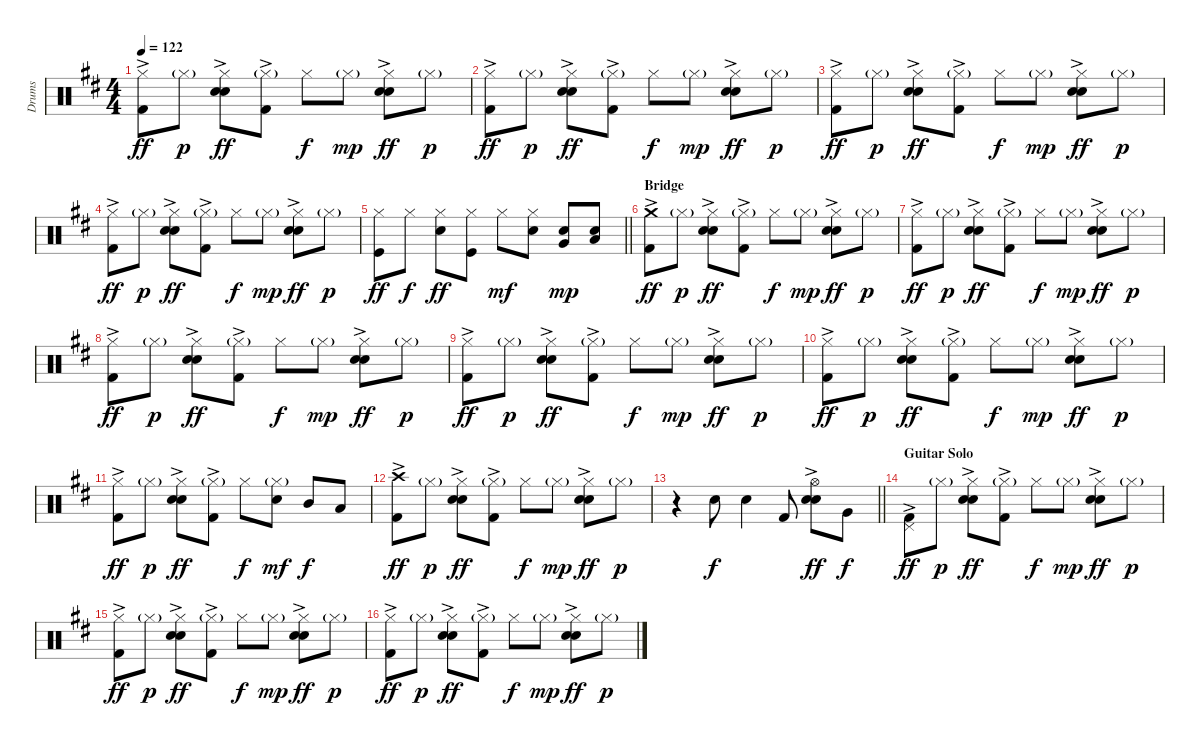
\track ("Drums" "Drums") {instrument percussion}
\staff {score}
\articulation defaults
\ts (4 4)
\tempo 122
\clef neutral
\ks d
("Hi-Hat (closed)" "Kick (hit) 2"{ac}).8{dy ff} "Hi-Hat (closed)"{g}.8{dy p} ("Hi-Hat (closed)" "Electric Snare (hit)"{ac} "Snare (hit) 2").8{dy ff} ("Hi-Hat (closed)"{g} "Kick (hit) 2"{ac}).8 "Hi-Hat (closed)".8{dy f} "Hi-Hat (closed)"{g}.8{dy mp} ("Hi-Hat (closed)" "Electric Snare (hit)"{ac} "Snare (hit) 2").8{dy ff} "Hi-Hat (closed)"{g}.8{dy p} |
("Hi-Hat (closed)" "Kick (hit) 2"{ac}).8{dy ff} "Hi-Hat (closed)"{g}.8{dy p} ("Hi-Hat (closed)" "Electric Snare (hit)"{ac} "Snare (hit) 2").8{dy ff} ("Hi-Hat (closed)"{g} "Kick (hit) 2"{ac}).8 "Hi-Hat (closed)".8{dy f} "Hi-Hat (closed)"{g}.8{dy mp} ("Hi-Hat (closed)" "Electric Snare (hit)"{ac} "Snare (hit) 2").8{dy ff} "Hi-Hat (closed)"{g}.8{dy p} |
("Hi-Hat (closed)" "Kick (hit) 2"{ac}).8{dy ff} "Hi-Hat (closed)"{g}.8{dy p} ("Hi-Hat (closed)" "Electric Snare (hit)"{ac} "Snare (hit) 2").8{dy ff} ("Hi-Hat (closed)"{g} "Kick (hit) 2"{ac}).8 "Hi-Hat (closed)".8{dy f} "Hi-Hat (closed)"{g}.8{dy mp} ("Hi-Hat (closed)" "Electric Snare (hit)"{ac} "Snare (hit) 2").8{dy ff} "Hi-Hat (closed)"{g}.8{dy p} |
("Hi-Hat (closed)" "Kick (hit) 2"{ac}).8{dy ff} "Hi-Hat (closed)"{g}.8{dy p} ("Hi-Hat (closed)" "Electric Snare (hit)"{ac} "Snare (hit) 2").8{dy ff} ("Hi-Hat (closed)"{g} "Kick (hit) 2"{ac}).8 "Hi-Hat (closed)".8{dy f} "Hi-Hat (closed)"{g}.8{dy mp} ("Hi-Hat (closed)" "Electric Snare (hit)"{ac} "Snare (hit) 2").8{dy ff} "Hi-Hat (closed)"{g}.8{dy p} |
\barLineRight lightlight
("Kick (hit)" "Hi-Hat (closed)").8{dy ff} "Hi-Hat (closed)".8{dy f} ("Electric Snare (hit)" "Hi-Hat (closed)").8{dy ff} ("Kick (hit)" "Hi-Hat (closed)").8 "Hi-Hat (closed)".8{dy mf} ("Electric Snare (hit)" "Hi-Hat (closed)").8 ("Electric Snare (hit)" "Very Low Tom (hit)").8{dy mp} ("Electric Snare (hit)" "Low Tom (hit)").8 |
\section ("" "Bridge")
("Crash medium (hit)" "Kick (hit) 2"{ac}).8{dy ff} "Hi-Hat (closed)"{g}.8{dy p} ("Hi-Hat (closed)" "Electric Snare (hit)"{ac} "Snare (hit) 2").8{dy ff} ("Hi-Hat (closed)"{g} "Kick (hit) 2"{ac}).8 "Hi-Hat (closed)".8{dy f} "Hi-Hat (closed)"{g}.8{dy mp} ("Hi-Hat (closed)" "Electric Snare (hit)"{ac} "Snare (hit) 2").8{dy ff} "Hi-Hat (closed)"{g}.8{dy p} |
("Hi-Hat (closed)" "Kick (hit) 2"{ac}).8{dy ff} "Hi-Hat (closed)"{g}.8{dy p} ("Hi-Hat (closed)" "Electric Snare (hit)"{ac} "Snare (hit) 2").8{dy ff} ("Hi-Hat (closed)"{g} "Kick (hit) 2"{ac}).8 "Hi-Hat (closed)".8{dy f} "Hi-Hat (closed)"{g}.8{dy mp} ("Hi-Hat (closed)" "Electric Snare (hit)"{ac} "Snare (hit) 2").8{dy ff} "Hi-Hat (closed)"{g}.8{dy p} |
("Hi-Hat (closed)" "Kick (hit) 2"{ac}).8{dy ff} "Hi-Hat (closed)"{g}.8{dy p} ("Hi-Hat (closed)" "Electric Snare (hit)"{ac} "Snare (hit) 2").8{dy ff} ("Hi-Hat (closed)"{g} "Kick (hit) 2"{ac}).8 "Hi-Hat (closed)".8{dy f} "Hi-Hat (closed)"{g}.8{dy mp} ("Hi-Hat (closed)" "Electric Snare (hit)"{ac} "Snare (hit) 2").8{dy ff} "Hi-Hat (closed)"{g}.8{dy p} |
("Hi-Hat (closed)" "Kick (hit) 2"{ac}).8{dy ff} "Hi-Hat (closed)"{g}.8{dy p} ("Hi-Hat (closed)" "Electric Snare (hit)"{ac} "Snare (hit) 2").8{dy ff} ("Hi-Hat (closed)"{g} "Kick (hit) 2"{ac}).8 "Hi-Hat (closed)".8{dy f} "Hi-Hat (closed)"{g}.8{dy mp} ("Hi-Hat (closed)" "Electric Snare (hit)"{ac} "Snare (hit) 2").8{dy ff} "Hi-Hat (closed)"{g}.8{dy p} |
("Hi-Hat (closed)" "Kick (hit) 2"{ac}).8{dy ff} "Hi-Hat (closed)"{g}.8{dy p} ("Hi-Hat (closed)" "Electric Snare (hit)"{ac} "Snare (hit) 2").8{dy ff} ("Hi-Hat (closed)"{g} "Kick (hit) 2"{ac}).8 "Hi-Hat (closed)".8{dy f} "Hi-Hat (closed)"{g}.8{dy mp} ("Hi-Hat (closed)" "Electric Snare (hit)"{ac} "Snare (hit) 2").8{dy ff} "Hi-Hat (closed)"{g}.8{dy p} |
("Hi-Hat (closed)" "Kick (hit) 2"{ac}).8{dy ff} "Hi-Hat (closed)"{g}.8{dy p} ("Hi-Hat (closed)" "Electric Snare (hit)"{ac} "Snare (hit) 2").8{dy ff} ("Hi-Hat (closed)"{g} "Kick (hit) 2"{ac}).8 "Hi-Hat (closed)".8{dy f} ("Hi-Hat (closed)"{g} "Electric Snare (hit)").8{dy mf} "Mid Tom (hit)".8{dy f} "Low Tom (hit)".8 |
("Crash high (hit)" "Kick (hit) 2"{ac}).8{dy ff} "Hi-Hat (closed)"{g}.8{dy p} ("Hi-Hat (closed)" "Electric Snare (hit)"{ac} "Snare (hit) 2").8{dy ff} ("Hi-Hat (closed)"{g} "Kick (hit) 2"{ac}).8 "Hi-Hat (closed)".8{dy f} "Hi-Hat (closed)"{g}.8{dy mp} ("Hi-Hat (closed)" "Electric Snare (hit)"{ac} "Snare (hit) 2").8{dy ff} "Hi-Hat (closed)"{g}.8{dy p} |
\barLineRight lightlight
r.4 "Electric Snare (hit)".8{dy f} "Electric Snare (hit)".4 "Kick (hit) 2".8 ("Hi-Hat (open)" "Electric Snare (hit)"{ac} "Snare (hit) 2").8{dy ff} "Very Low Tom (hit)".8{dy f} |
\section ("" "Guitar Solo")
("Pedal Hi-Hat (hit)" "Kick (hit) 2"{ac}).8{dy ff} "Hi-Hat (closed)"{g}.8{dy p} ("Hi-Hat (closed)" "Electric Snare (hit)"{ac} "Snare (hit) 2").8{dy ff} ("Hi-Hat (closed)"{g} "Kick (hit) 2"{ac}).8 "Hi-Hat (closed)".8{dy f} "Hi-Hat (closed)"{g}.8{dy mp} ("Hi-Hat (closed)" "Electric Snare (hit)"{ac} "Snare (hit) 2").8{dy ff} "Hi-Hat (closed)"{g}.8{dy p} |
("Hi-Hat (closed)" "Kick (hit) 2"{ac}).8{dy ff} "Hi-Hat (closed)"{g}.8{dy p} ("Hi-Hat (closed)" "Electric Snare (hit)"{ac} "Snare (hit) 2").8{dy ff} ("Hi-Hat (closed)"{g} "Kick (hit) 2"{ac}).8 "Hi-Hat (closed)".8{dy f} "Hi-Hat (closed)"{g}.8{dy mp} ("Hi-Hat (closed)" "Electric Snare (hit)"{ac} "Snare (hit) 2").8{dy ff} "Hi-Hat (closed)"{g}.8{dy p} |
("Hi-Hat (closed)" "Kick (hit) 2"{ac}).8{dy ff} "Hi-Hat (closed)"{g}.8{dy p} ("Hi-Hat (closed)" "Electric Snare (hit)"{ac} "Snare (hit) 2").8{dy ff} ("Hi-Hat (closed)"{g} "Kick (hit) 2"{ac}).8 "Hi-Hat (closed)".8{dy f} "Hi-Hat (closed)"{g}.8{dy mp} ("Hi-Hat (closed)" "Electric Snare (hit)"{ac} "Snare (hit) 2").8{dy ff} "Hi-Hat (closed)"{g}.8{dy p}
